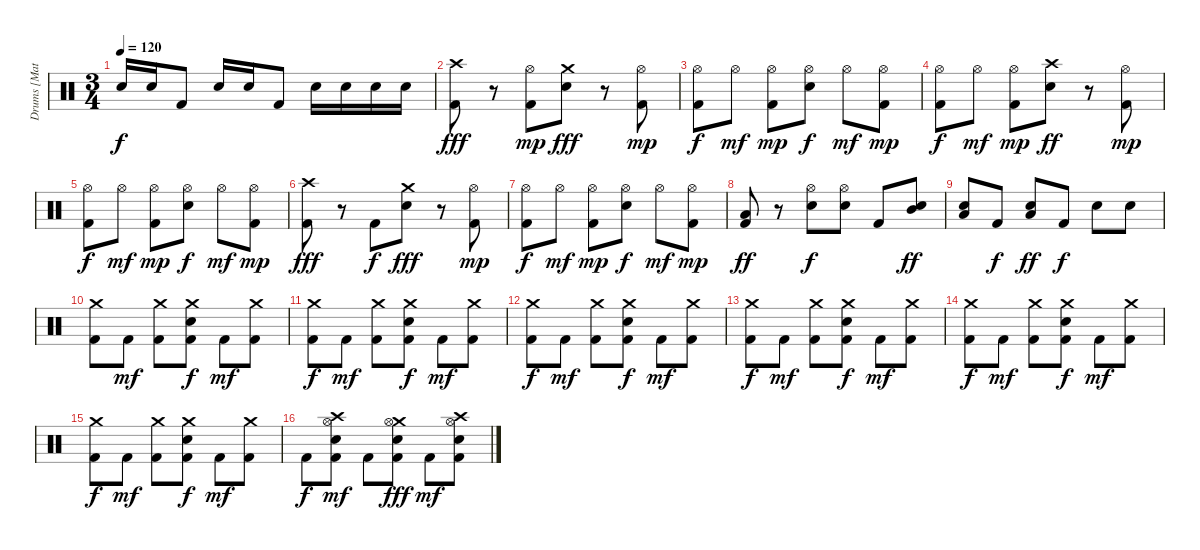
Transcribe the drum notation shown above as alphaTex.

\track ("Drums [Matt]" "Drums [Mat") {instrument percussion}
\staff {score}
\articulation defaults
\ts (3 4)
\tempo 120
\clef neutral
\ks c "Snare (hit) 2".16{dy f} "Snare (hit) 2".16 "Kick (hit) 2".8 "Snare (hit) 2".16 "Snare (hit) 2".16 "Kick (hit) 2".8 "Snare (hit) 2".16 "Snare (hit) 2".16 "Snare (hit) 2".16 "Snare (hit) 2".16
|
("Crash high (hit)" "Kick (hit) 2").8{dy fff} r.8 ("Hi-Hat (open)" "Kick (hit) 2").8{dy mp} ("Crash medium (hit)" "Snare (hit) 2").8{dy fff} r.8 ("Hi-Hat (open)" "Kick (hit) 2").8{dy mp} |
("Hi-Hat (open)" "Kick (hit) 2").8{dy f} "Hi-Hat (open)".8{dy mf} ("Hi-Hat (open)" "Kick (hit) 2").8{dy mp} ("Hi-Hat (open)" "Snare (hit) 2").8{dy f} "Hi-Hat (open)".8{dy mf} ("Hi-Hat (open)" "Kick (hit) 2").8{dy mp} |
("Hi-Hat (open)" "Kick (hit) 2").8{dy f} "Hi-Hat (open)".8{dy mf} ("Hi-Hat (open)" "Kick (hit) 2").8{dy mp} ("Crash high (hit)" "Snare (hit) 2").8{dy ff} r.8 ("Hi-Hat (open)" "Kick (hit) 2").8{dy mp} |
("Hi-Hat (open)" "Kick (hit) 2").8{dy f} "Hi-Hat (open)".8{dy mf} ("Hi-Hat (open)" "Kick (hit) 2").8{dy mp} ("Hi-Hat (open)" "Snare (hit) 2").8{dy f} "Hi-Hat (open)".8{dy mf} ("Hi-Hat (open)" "Kick (hit) 2").8{dy mp} |
("Crash high (hit)" "Kick (hit) 2").8{dy fff} r.8 "Kick (hit) 2".8{dy f} ("Crash medium (hit)" "Snare (hit) 2").8{dy fff} r.8 ("Hi-Hat (open)" "Kick (hit) 2").8{dy mp} |
("Hi-Hat (open)" "Kick (hit) 2").8{dy f} "Hi-Hat (open)".8{dy mf} ("Hi-Hat (open)" "Kick (hit) 2").8{dy mp} ("Hi-Hat (open)" "Snare (hit) 2").8{dy f} "Hi-Hat (open)".8{dy mf} ("Hi-Hat (open)" "Kick (hit) 2").8{dy mp} |
("Low Tom (hit)" "Kick (hit) 2").8{dy ff} r.8 ("Hi-Hat (open)" "Snare (hit) 2").8{dy f} ("Hi-Hat (open)" "Snare (hit) 2").8 "Kick (hit) 2".8 ("Snare (hit) 2" "Mid Tom (hit)").8{dy ff} |
("Snare (hit) 2" "Low Tom (hit)").8 "Kick (hit) 2".8{dy f} ("Snare (hit) 2" "Low Tom (hit)").8{dy ff} "Kick (hit) 2".8{dy f} "Snare (hit) 2".8 "Snare (hit) 2".8 |
("Crash medium (hit)" "Kick (hit) 2").8 "Kick (hit) 2".8{dy mf} ("Crash medium (hit)" "Kick (hit) 2").8 ("Crash medium (hit)" "Snare (hit) 2" "Kick (hit) 2").8{dy f} "Kick (hit) 2".8{dy mf} ("Crash medium (hit)" "Kick (hit) 2").8 |
("Crash medium (hit)" "Kick (hit) 2").8{dy f} "Kick (hit) 2".8{dy mf} ("Crash medium (hit)" "Kick (hit) 2").8 ("Crash medium (hit)" "Snare (hit) 2" "Kick (hit) 2").8{dy f} "Kick (hit) 2".8{dy mf} ("Crash medium (hit)" "Kick (hit) 2").8 |
("Crash medium (hit)" "Kick (hit) 2").8{dy f} "Kick (hit) 2".8{dy mf} ("Crash medium (hit)" "Kick (hit) 2").8 ("Crash medium (hit)" "Snare (hit) 2" "Kick (hit) 2").8{dy f} "Kick (hit) 2".8{dy mf} ("Crash medium (hit)" "Kick (hit) 2").8 |
("Crash medium (hit)" "Kick (hit) 2").8{dy f} "Kick (hit) 2".8{dy mf} ("Crash medium (hit)" "Kick (hit) 2").8 ("Crash medium (hit)" "Snare (hit) 2" "Kick (hit) 2").8{dy f} "Kick (hit) 2".8{dy mf} ("Crash medium (hit)" "Kick (hit) 2").8 |
("Crash medium (hit)" "Kick (hit) 2").8{dy f} "Kick (hit) 2".8{dy mf} ("Crash medium (hit)" "Kick (hit) 2").8 ("Crash medium (hit)" "Snare (hit) 2" "Kick (hit) 2").8{dy f} "Kick (hit) 2".8{dy mf} ("Crash medium (hit)" "Kick (hit) 2").8 |
("Crash medium (hit)" "Kick (hit) 2").8{dy f} "Kick (hit) 2".8{dy mf} ("Crash medium (hit)" "Kick (hit) 2").8 ("Crash medium (hit)" "Snare (hit) 2" "Kick (hit) 2").8{dy f} "Kick (hit) 2".8{dy mf} ("Crash medium (hit)" "Kick (hit) 2").8 |
"Kick (hit) 2".8{dy f} ("Crash high (hit)" "Hi-Hat (open)" "Snare (hit) 2" "Kick (hit) 2").8{dy mf} "Kick (hit) 2".8 ("Crash medium (hit)" "Hi-Hat (open)" "Snare (hit) 2" "Kick (hit) 2").8{dy fff} "Kick (hit) 2".8{dy mf} ("Crash high (hit)" "Hi-Hat (open)" "Snare (hit) 2" "Kick (hit) 2").8
